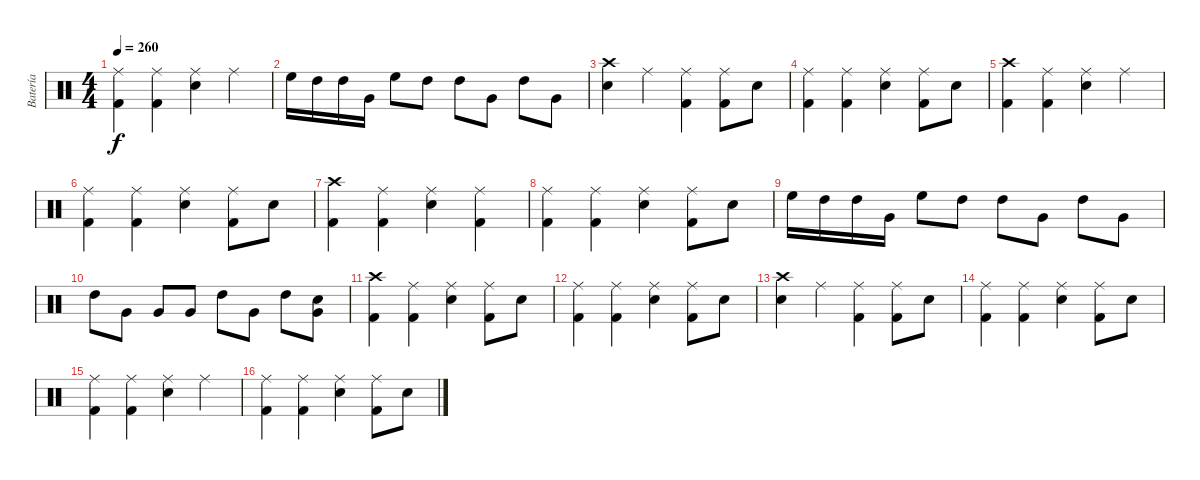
\track ("Batería" "Batería") {instrument percussion}
\staff {score}
\articulation defaults
\ts (4 4)
\tempo 260
\clef neutral
\ks c
("Kick (hit) 2" "Ride (middle)").4{dy f} ("Kick (hit) 2" "Ride (middle)").4 ("Snare (hit) 2" "Ride (middle)").4 "Ride (middle)".4 |
"High Floor Tom (hit)".16 "High Tom (hit)".16 "High Tom (hit)".16 "Very Low Tom (hit)".16 "High Floor Tom (hit)".8 "High Tom (hit)".8 "High Tom (hit)".8 "Very Low Tom (hit)".8 "High Tom (hit)".8 "Very Low Tom (hit)".8 |
("Snare (hit) 2" "Crash high (hit)").4 "Ride (middle)".4 ("Kick (hit) 2" "Ride (middle)").4 ("Kick (hit) 2" "Ride (middle)").8 "Snare (hit) 2".8 |
("Kick (hit) 2" "Ride (middle)").4 ("Kick (hit) 2" "Ride (middle)").4 ("Snare (hit) 2" "Ride (middle)").4 ("Kick (hit) 2" "Ride (middle)").8 "Snare (hit) 2".8 |
("Kick (hit) 2" "Crash high (hit)").4 ("Kick (hit) 2" "Ride (middle)").4 ("Snare (hit) 2" "Ride (middle)").4 "Ride (middle)".4 |
("Kick (hit) 2" "Ride (middle)").4 ("Kick (hit) 2" "Ride (middle)").4 ("Snare (hit) 2" "Ride (middle)").4 ("Kick (hit) 2" "Ride (middle)").8 "Snare (hit) 2".8 |
("Kick (hit) 2" "Crash high (hit)").4 ("Kick (hit) 2" "Ride (middle)").4 ("Snare (hit) 2" "Ride (middle)").4 ("Kick (hit) 2" "Ride (middle)").4 |
("Kick (hit) 2" "Ride (middle)").4 ("Kick (hit) 2" "Ride (middle)").4 ("Snare (hit) 2" "Ride (middle)").4 ("Kick (hit) 2" "Ride (middle)").8 "Snare (hit) 2".8 |
"High Floor Tom (hit)".16 "High Tom (hit)".16 "High Tom (hit)".16 "Very Low Tom (hit)".16 "High Floor Tom (hit)".8 "High Tom (hit)".8 "High Tom (hit)".8 "Very Low Tom (hit)".8 "High Tom (hit)".8 "Very Low Tom (hit)".8 |
"High Tom (hit)".8 "Very Low Tom (hit)".8 "Very Low Tom (hit)".8 "Very Low Tom (hit)".8 "High Tom (hit)".8 "Very Low Tom (hit)".8 "High Tom (hit)".8 ("Snare (hit)" "Very Low Tom (hit)").8 |
("Kick (hit) 2" "Crash high (hit)").4 ("Kick (hit) 2" "Ride (middle)").4 ("Snare (hit) 2" "Ride (middle)").4 ("Kick (hit) 2" "Ride (middle)").8 "Snare (hit) 2".8 |
("Kick (hit) 2" "Ride (middle)").4 ("Kick (hit) 2" "Ride (middle)").4 ("Snare (hit) 2" "Ride (middle)").4 ("Kick (hit) 2" "Ride (middle)").8 "Snare (hit) 2".8 |
("Snare (hit) 2" "Crash high (hit)").4 "Ride (middle)".4 ("Kick (hit) 2" "Ride (middle)").4 ("Kick (hit) 2" "Ride (middle)").8 "Snare (hit) 2".8 |
("Kick (hit) 2" "Ride (middle)").4 ("Kick (hit) 2" "Ride (middle)").4 ("Snare (hit) 2" "Ride (middle)").4 ("Kick (hit) 2" "Ride (middle)").8 "Snare (hit) 2".8 |
("Kick (hit) 2" "Ride (middle)").4 ("Kick (hit) 2" "Ride (middle)").4 ("Snare (hit) 2" "Ride (middle)").4 "Ride (middle)".4 |
("Kick (hit) 2" "Ride (middle)").4 ("Kick (hit) 2" "Ride (middle)").4 ("Snare (hit) 2" "Ride (middle)").4 ("Kick (hit) 2" "Ride (middle)").8 "Snare (hit) 2".8
